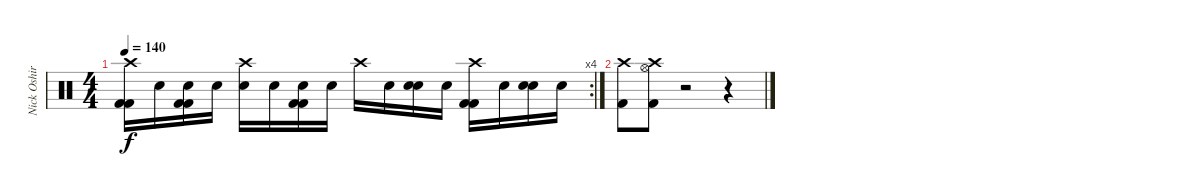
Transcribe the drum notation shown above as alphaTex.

\track ("Nick Oshiro [drums]" "Nick Oshir") {instrument percussion}
\staff {score}
\articulation defaults
\rc 4
\ts (4 4)
\tempo 140
\clef neutral
\ks c
("Crash high (hit)" "Kick (hit) 2" "Kick (hit) 2").16{dy f} "Snare (hit)".16 ("Snare (hit)" "Kick (hit) 2" "Kick (hit) 2").16 "Snare (hit)".16 ("Crash high (hit)" "Electric Snare (hit)").16 "Snare (hit)".16 ("Snare (hit)" "Kick (hit) 2" "Kick (hit) 2").16 "Snare (hit)".16 "Crash high (hit)".16 "Snare (hit)".16 ("Snare (hit)" "Electric Snare (hit)").16 "Snare (hit)".16 ("Crash high (hit)" "Kick (hit) 2" "Kick (hit) 2").16 "Snare (hit)".16 ("Snare (hit)" "Electric Snare (hit)").16 "Snare (hit)".16 |
("Crash high (hit)" "Kick (hit) 2").8 ("Crash high (hit)" "Hi-Hat (open)" "Kick (hit) 2").8 r.2 r.4
